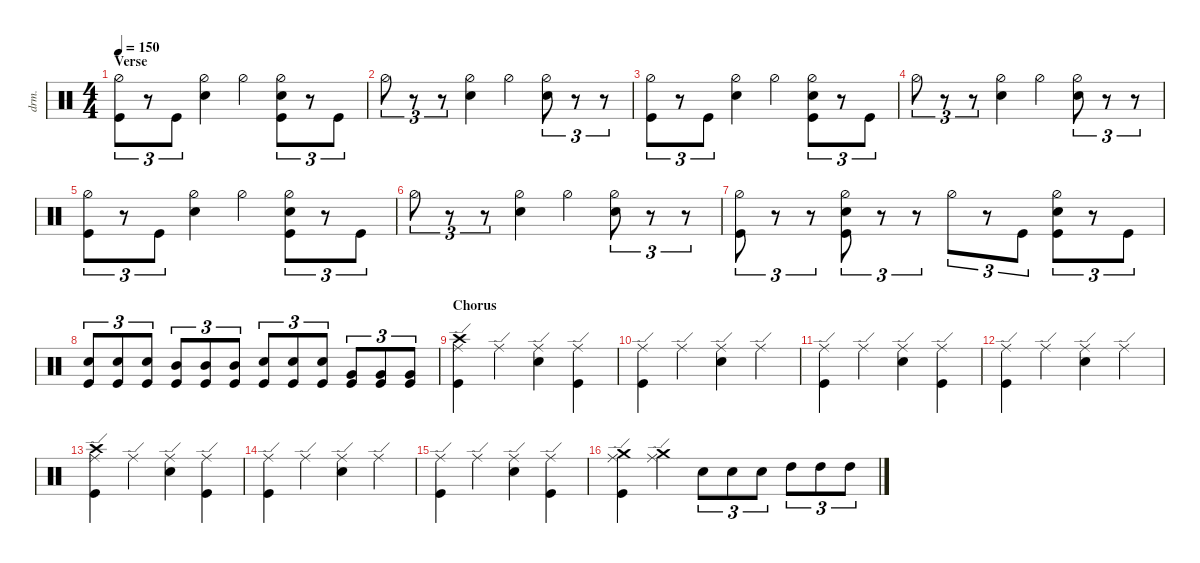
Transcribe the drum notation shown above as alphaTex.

\defaultSystemsLayout 4
\hideDynamics
\bracketExtendMode nobrackets
\otherSystemsTrackNameOrientation horizontal
\track ("Drumkit" "drm.") {solo instrument percussion}
\staff {score}
\articulation defaults
\ts (4 4)
\section ("" "Verse")
\scale
1.06666
\tempo 150
\accidentals auto
\clef neutral
\ottava regular
\simile none
\ks aminor
("Kick (hit)" "Hi-Hat (half)").8{tu (3 2) dy mf beam Down} r.8{tu (3 2) beam Down} "Kick (hit)".8{tu (3 2) beam Down} ("Hi-Hat (half)" "Snare (hit) 2").4{beam Down} "Hi-Hat (half)".4{beam Down} ("Kick (hit)" "Hi-Hat (half)" "Snare (hit) 2").8{tu (3 2) beam Down} r.8{tu (3 2) beam Down} "Kick (hit)".8{tu (3 2) beam Down} |
\scale
0.977779 "Hi-Hat (half)".8{tu (3 2) beam Down} r.8{tu (3 2) beam Down} r.8{tu (3 2) beam Down} ("Hi-Hat (half)" "Snare (hit) 2").4{beam Down} "Hi-Hat (half)".4{beam Down} ("Hi-Hat (half)" "Snare (hit) 2").8{tu (3 2) beam Down} r.8{tu (3 2) beam Down} r.8{tu (3 2) beam Down} |
\scale
0.977779 ("Kick (hit)" "Hi-Hat (half)").8{tu (3 2) beam Down} r.8{tu (3 2) beam Down} "Kick (hit)".8{tu (3 2) beam Down} ("Hi-Hat (half)" "Snare (hit) 2").4{beam Down} "Hi-Hat (half)".4{beam Down} ("Kick (hit)" "Hi-Hat (half)" "Snare (hit) 2").8{tu (3 2) beam Down} r.8{tu (3 2) beam Down} "Kick (hit)".8{tu (3 2) beam Down} |
\scale
0.977779 "Hi-Hat (half)".8{tu (3 2) beam Down} r.8{tu (3 2) beam Down} r.8{tu (3 2) beam Down} ("Hi-Hat (half)" "Snare (hit) 2").4{beam Down} "Hi-Hat (half)".4{beam Down} ("Hi-Hat (half)" "Snare (hit) 2").8{tu (3 2) beam Down} r.8{tu (3 2) beam Down} r.8{tu (3 2) beam Down} |
\scale
1.06224 ("Kick (hit)" "Hi-Hat (half)").8{tu (3 2) beam Down} r.8{tu (3 2) beam Down} "Kick (hit)".8{tu (3 2) beam Down} ("Hi-Hat (half)" "Snare (hit) 2").4{beam Down} "Hi-Hat (half)".4{beam Down} ("Kick (hit)" "Hi-Hat (half)" "Snare (hit) 2").8{tu (3 2) beam Down} r.8{tu (3 2) beam Down} "Kick (hit)".8{tu (3 2) beam Down} |
\scale
0.973358 "Hi-Hat (half)".8{tu (3 2) beam Down} r.8{tu (3 2) beam Down} r.8{tu (3 2) beam Down} ("Hi-Hat (half)" "Snare (hit) 2").4{beam Down} "Hi-Hat (half)".4{beam Down} ("Hi-Hat (half)" "Snare (hit) 2").8{tu (3 2) beam Down} r.8{tu (3 2) beam Down} r.8{tu (3 2) beam Down} |
\scale
0.973358 ("Kick (hit)" "Hi-Hat (half)").8{tu (3 2) beam Down} r.8{tu (3 2) beam Down} r.8{tu (3 2) beam Down} ("Kick (hit)" "Hi-Hat (half)" "Snare (hit) 2").8{tu (3 2) beam Down} r.8{tu (3 2) beam Down} r.8{tu (3 2) beam Down} "Hi-Hat (half)".8{tu (3 2) beam Down} r.8{tu (3 2) beam Down} "Kick (hit)".8{tu (3 2) beam Down} ("Kick (hit)" "Hi-Hat (half)" "Snare (hit) 2").8{tu (3 2) beam Down} r.8{tu (3 2) beam Down} "Kick (hit)".8{tu (3 2) beam Down} |
\scale
0.991042 ("Snare (hit) 2" "Kick (hit)").8{tu (3 2) beam Up} ("Snare (hit) 2" "Kick (hit)").8{tu (3 2) beam Up} ("Snare (hit) 2" "Kick (hit)").8{tu (3 2) beam Up} ("Mid Tom (hit)" "Kick (hit)").8{tu (3 2) beam Up} ("Mid Tom (hit)" "Kick (hit)").8{tu (3 2) beam Up} ("Mid Tom (hit)" "Kick (hit)").8{tu (3 2) beam Up} ("Snare (hit) 2" "Kick (hit)").8{tu (3 2) beam Up} ("Snare (hit) 2" "Kick (hit)").8{tu (3 2) beam Up} ("Snare (hit) 2" "Kick (hit)").8{tu (3 2) beam Up} ("Very Low Tom (hit)" "Kick (hit)").8{tu (3 2) beam Up} ("Very Low Tom (hit)" "Kick (hit)").8{tu (3 2) beam Up} ("Very Low Tom (hit)" "Kick (hit)").8{tu (3 2) beam Up} |
\section ("" "Chorus")
\scale
1.15555 ("Kick (hit)" "Ride (edge)" "Crash high (hit)").4{beam Down} "Ride (edge)".4{beam Down} ("Ride (edge)" "Snare (hit) 2").4{beam Down} ("Kick (hit)" "Ride (edge)").4{beam Down} |
\scale
0.977779 ("Kick (hit)" "Ride (edge)").4{beam Down} "Ride (edge)".4{beam Down} ("Ride (edge)" "Snare (hit) 2").4{beam Down} "Ride (edge)".4{beam Down} |
\scale
0.977779 ("Kick (hit)" "Ride (edge)").4{beam Down} "Ride (edge)".4{beam Down} ("Ride (edge)" "Snare (hit) 2").4{beam Down} ("Kick (hit)" "Ride (edge)").4{beam Down} |
\scale
0.977779 ("Kick (hit)" "Ride (edge)").4{beam Down} "Ride (edge)".4{beam Down} ("Ride (edge)" "Snare (hit) 2").4{beam Down} "Ride (edge)".4{beam Down} |
\scale
0.977779 ("Kick (hit)" "Ride (edge)" "Crash high (hit)").4{beam Down} "Ride (edge)".4{beam Down} ("Ride (edge)" "Snare (hit) 2").4{beam Down} ("Kick (hit)" "Ride (edge)").4{beam Down} |
\scale
0.977779 ("Kick (hit)" "Ride (edge)").4{beam Down} "Ride (edge)".4{beam Down} ("Ride (edge)" "Snare (hit) 2").4{beam Down} "Ride (edge)".4{beam Down} |
\scale
0.977779 ("Kick (hit)" "Ride (edge)").4{beam Down} "Ride (edge)".4{beam Down} ("Ride (edge)" "Snare (hit) 2").4{beam Down} ("Kick (hit)" "Ride (edge)").4{beam Down} |
\scale
0.977779 ("Kick (hit)" "Ride (edge)" "Crash medium (hit)").4{beam Down} ("Ride (edge)" "Crash medium (hit)").4{beam Down} "Snare (hit) 2".8{tu (3 2) beam Down} "Snare (hit) 2".8{tu (3 2) beam Down} "Snare (hit) 2".8{tu (3 2) beam Down} "High Tom (hit)".8{tu (3 2) beam Down} "High Tom (hit)".8{tu (3 2) beam Down} "High Tom (hit)".8{tu (3 2) beam Down}
